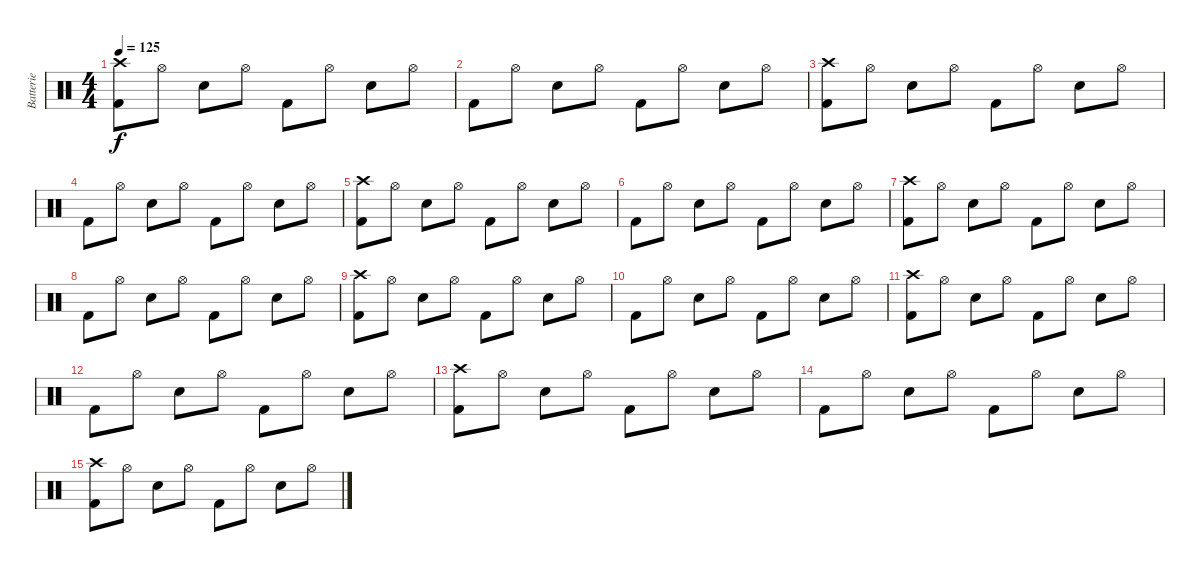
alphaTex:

\track ("Batterie" "Batterie") {instrument percussion}
\staff {score}
\articulation defaults
\ts (4 4)
\tempo 125
\clef neutral
\ks c
("Crash high (hit)" "Kick (hit) 2").8{dy f} "Hi-Hat (open)".8 "Electric Snare (hit)".8 "Hi-Hat (open)".8 "Kick (hit) 2".8 "Hi-Hat (open)".8 "Electric Snare (hit)".8 "Hi-Hat (open)".8 |
"Kick (hit) 2".8 "Hi-Hat (open)".8 "Electric Snare (hit)".8 "Hi-Hat (open)".8 "Kick (hit) 2".8 "Hi-Hat (open)".8 "Electric Snare (hit)".8 "Hi-Hat (open)".8 |
("Crash high (hit)" "Kick (hit) 2").8 "Hi-Hat (open)".8 "Electric Snare (hit)".8 "Hi-Hat (open)".8 "Kick (hit) 2".8 "Hi-Hat (open)".8 "Electric Snare (hit)".8 "Hi-Hat (open)".8 |
"Kick (hit) 2".8 "Hi-Hat (open)".8 "Electric Snare (hit)".8 "Hi-Hat (open)".8 "Kick (hit) 2".8 "Hi-Hat (open)".8 "Electric Snare (hit)".8 "Hi-Hat (open)".8 |
("Crash high (hit)" "Kick (hit) 2").8 "Hi-Hat (open)".8 "Electric Snare (hit)".8 "Hi-Hat (open)".8 "Kick (hit) 2".8 "Hi-Hat (open)".8 "Electric Snare (hit)".8 "Hi-Hat (open)".8 |
"Kick (hit) 2".8 "Hi-Hat (open)".8 "Electric Snare (hit)".8 "Hi-Hat (open)".8 "Kick (hit) 2".8 "Hi-Hat (open)".8 "Electric Snare (hit)".8 "Hi-Hat (open)".8 |
("Crash high (hit)" "Kick (hit) 2").8 "Hi-Hat (open)".8 "Electric Snare (hit)".8 "Hi-Hat (open)".8 "Kick (hit) 2".8 "Hi-Hat (open)".8 "Electric Snare (hit)".8 "Hi-Hat (open)".8 |
"Kick (hit) 2".8 "Hi-Hat (open)".8 "Electric Snare (hit)".8 "Hi-Hat (open)".8 "Kick (hit) 2".8 "Hi-Hat (open)".8 "Electric Snare (hit)".8 "Hi-Hat (open)".8 |
("Crash high (hit)" "Kick (hit) 2").8 "Hi-Hat (open)".8 "Electric Snare (hit)".8 "Hi-Hat (open)".8 "Kick (hit) 2".8 "Hi-Hat (open)".8 "Electric Snare (hit)".8 "Hi-Hat (open)".8 |
"Kick (hit) 2".8 "Hi-Hat (open)".8 "Electric Snare (hit)".8 "Hi-Hat (open)".8 "Kick (hit) 2".8 "Hi-Hat (open)".8 "Electric Snare (hit)".8 "Hi-Hat (open)".8 |
("Crash high (hit)" "Kick (hit) 2").8 "Hi-Hat (open)".8 "Electric Snare (hit)".8 "Hi-Hat (open)".8 "Kick (hit) 2".8 "Hi-Hat (open)".8 "Electric Snare (hit)".8 "Hi-Hat (open)".8 |
"Kick (hit) 2".8 "Hi-Hat (open)".8 "Electric Snare (hit)".8 "Hi-Hat (open)".8 "Kick (hit) 2".8 "Hi-Hat (open)".8 "Electric Snare (hit)".8 "Hi-Hat (open)".8 |
("Crash high (hit)" "Kick (hit) 2").8 "Hi-Hat (open)".8 "Electric Snare (hit)".8 "Hi-Hat (open)".8 "Kick (hit) 2".8 "Hi-Hat (open)".8 "Electric Snare (hit)".8 "Hi-Hat (open)".8 |
"Kick (hit) 2".8 "Hi-Hat (open)".8 "Electric Snare (hit)".8 "Hi-Hat (open)".8 "Kick (hit) 2".8 "Hi-Hat (open)".8 "Electric Snare (hit)".8 "Hi-Hat (open)".8 |
("Crash high (hit)" "Kick (hit) 2").8 "Hi-Hat (open)".8 "Electric Snare (hit)".8 "Hi-Hat (open)".8 "Kick (hit) 2".8 "Hi-Hat (open)".8 "Electric Snare (hit)".8 "Hi-Hat (open)".8
